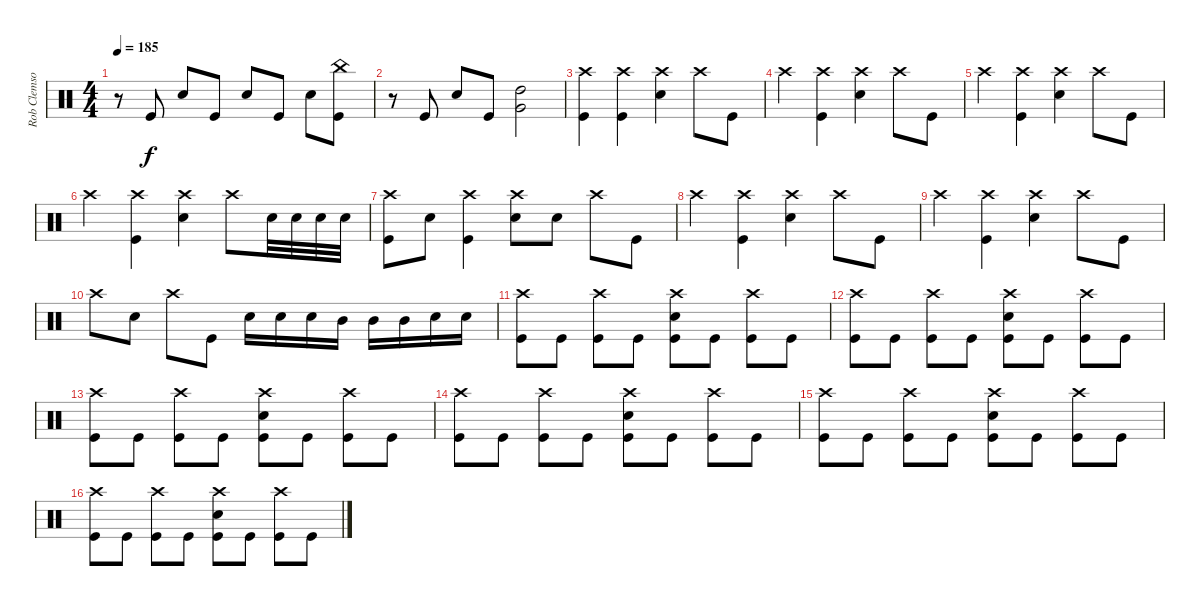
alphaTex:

\track ("Rob Clemson (Drums)" "Rob Clemso") {instrument percussion}
\staff {score}
\articulation defaults
\ts (4 4)
\tempo 185
\clef neutral
\ks c
r.8{dy f} "Kick (hit)".8 "Electric Snare (hit)".8 "Kick (hit)".8 "Electric Snare (hit)".8 "Kick (hit)".8 "Electric Snare (hit)".8 ("Kick (hit)" "China (hit)").8 |
r.8 "Kick (hit)".8 "Electric Snare (hit)".8 "Kick (hit)".8 ("Very Low Tom (hit)" "High Tom (hit)").2 |
("Crash high (hit)" "Kick (hit)").4 ("Crash high (hit)" "Kick (hit)").4 ("Crash high (hit)" "Electric Snare (hit)").4 "Crash high (hit)".8 "Kick (hit)".8 |
"Crash high (hit)".4 ("Crash high (hit)" "Kick (hit)").4 ("Crash high (hit)" "Electric Snare (hit)").4 "Crash high (hit)".8 "Kick (hit)".8 |
"Crash high (hit)".4 ("Crash high (hit)" "Kick (hit)").4 ("Crash high (hit)" "Electric Snare (hit)").4 "Crash high (hit)".8 "Kick (hit)".8 |
"Crash high (hit)".4 ("Crash high (hit)" "Kick (hit)").4 ("Crash high (hit)" "Electric Snare (hit)").4 "Crash high (hit)".8 "Electric Snare (hit)".32 "Electric Snare (hit)".32 "Electric Snare (hit)".32 "Electric Snare (hit)".32 |
("Crash high (hit)" "Kick (hit)").8 "Electric Snare (hit)".8 ("Crash high (hit)" "Kick (hit)").4 ("Crash high (hit)" "Electric Snare (hit)").8 "Electric Snare (hit)".8 "Crash high (hit)".8 "Kick (hit)".8 |
"Crash high (hit)".4 ("Crash high (hit)" "Kick (hit)").4 ("Crash high (hit)" "Electric Snare (hit)").4 "Crash high (hit)".8 "Kick (hit)".8 |
"Crash high (hit)".4 ("Crash high (hit)" "Kick (hit)").4 ("Crash high (hit)" "Electric Snare (hit)").4 "Crash high (hit)".8 "Kick (hit)".8 |
"Crash high (hit)".8 "Electric Snare (hit)".8 "Crash high (hit)".8 "Kick (hit)".8 "Electric Snare (hit)".16 "Electric Snare (hit)".16 "Electric Snare (hit)".16 "Mid Tom (hit)".16 "Mid Tom (hit)".16 "Mid Tom (hit)".16 "Electric Snare (hit)".16 "Electric Snare (hit)".16 |
("Crash high (hit)" "Kick (hit)").8 "Kick (hit)".8 ("Crash high (hit)" "Kick (hit)").8 "Kick (hit)".8 ("Crash high (hit)" "Kick (hit)" "Electric Snare (hit)").8 "Kick (hit)".8 ("Crash high (hit)" "Kick (hit)").8 "Kick (hit)".8 |
("Crash high (hit)" "Kick (hit)").8 "Kick (hit)".8 ("Crash high (hit)" "Kick (hit)").8 "Kick (hit)".8 ("Crash high (hit)" "Kick (hit)" "Electric Snare (hit)").8 "Kick (hit)".8 ("Crash high (hit)" "Kick (hit)").8 "Kick (hit)".8 |
("Crash high (hit)" "Kick (hit)").8 "Kick (hit)".8 ("Crash high (hit)" "Kick (hit)").8 "Kick (hit)".8 ("Crash high (hit)" "Kick (hit)" "Electric Snare (hit)").8 "Kick (hit)".8 ("Crash high (hit)" "Kick (hit)").8 "Kick (hit)".8 |
("Crash high (hit)" "Kick (hit)").8 "Kick (hit)".8 ("Crash high (hit)" "Kick (hit)").8 "Kick (hit)".8 ("Crash high (hit)" "Kick (hit)" "Electric Snare (hit)").8 "Kick (hit)".8 ("Crash high (hit)" "Kick (hit)").8 "Kick (hit)".8 |
("Crash high (hit)" "Kick (hit)").8 "Kick (hit)".8 ("Crash high (hit)" "Kick (hit)").8 "Kick (hit)".8 ("Crash high (hit)" "Kick (hit)" "Electric Snare (hit)").8 "Kick (hit)".8 ("Crash high (hit)" "Kick (hit)").8 "Kick (hit)".8 |
("Crash high (hit)" "Kick (hit)").8 "Kick (hit)".8 ("Crash high (hit)" "Kick (hit)").8 "Kick (hit)".8 ("Crash high (hit)" "Kick (hit)" "Electric Snare (hit)").8 "Kick (hit)".8 ("Crash high (hit)" "Kick (hit)").8 "Kick (hit)".8
